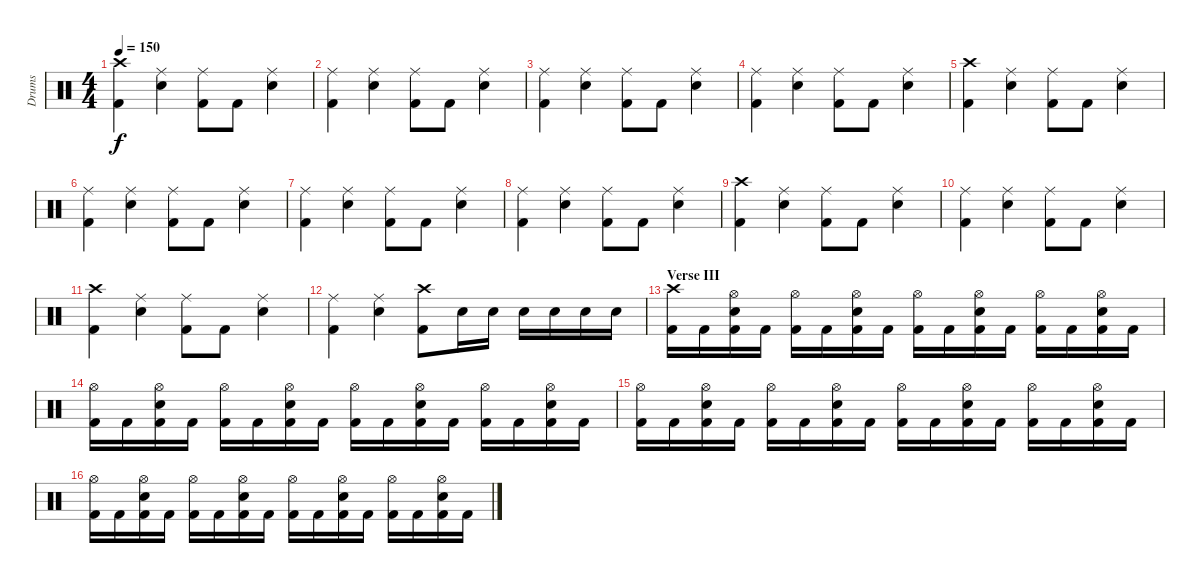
\track ("Drums" "Drums") {instrument percussion}
\staff {score}
\articulation defaults
\ts (4 4)
\tempo 150
\clef neutral
\ks c
("Crash high (hit)" "Kick (hit) 2").4{dy f} ("Ride (middle)" "Electric Snare (hit)").4 ("Ride (middle)" "Kick (hit) 2").8 "Kick (hit) 2".8 ("Ride (middle)" "Electric Snare (hit)").4 |
("Ride (middle)" "Kick (hit) 2").4 ("Ride (middle)" "Electric Snare (hit)").4 ("Ride (middle)" "Kick (hit) 2").8 "Kick (hit) 2".8 ("Ride (middle)" "Electric Snare (hit)").4 |
("Ride (middle)" "Kick (hit) 2").4 ("Ride (middle)" "Electric Snare (hit)").4 ("Ride (middle)" "Kick (hit) 2").8 "Kick (hit) 2".8 ("Ride (middle)" "Electric Snare (hit)").4 |
("Ride (middle)" "Kick (hit) 2").4 ("Ride (middle)" "Electric Snare (hit)").4 ("Ride (middle)" "Kick (hit) 2").8 "Kick (hit) 2".8 ("Ride (middle)" "Electric Snare (hit)").4 |
("Crash high (hit)" "Kick (hit) 2").4 ("Ride (middle)" "Electric Snare (hit)").4 ("Ride (middle)" "Kick (hit) 2").8 "Kick (hit) 2".8 ("Ride (middle)" "Electric Snare (hit)").4 |
("Ride (middle)" "Kick (hit) 2").4 ("Ride (middle)" "Electric Snare (hit)").4 ("Ride (middle)" "Kick (hit) 2").8 "Kick (hit) 2".8 ("Ride (middle)" "Electric Snare (hit)").4 |
("Ride (middle)" "Kick (hit) 2").4 ("Ride (middle)" "Electric Snare (hit)").4 ("Ride (middle)" "Kick (hit) 2").8 "Kick (hit) 2".8 ("Ride (middle)" "Electric Snare (hit)").4 |
("Ride (middle)" "Kick (hit) 2").4 ("Ride (middle)" "Electric Snare (hit)").4 ("Ride (middle)" "Kick (hit) 2").8 "Kick (hit) 2".8 ("Ride (middle)" "Electric Snare (hit)").4 |
("Crash high (hit)" "Kick (hit) 2").4 ("Ride (middle)" "Electric Snare (hit)").4 ("Ride (middle)" "Kick (hit) 2").8 "Kick (hit) 2".8 ("Ride (middle)" "Electric Snare (hit)").4 |
("Ride (middle)" "Kick (hit) 2").4 ("Ride (middle)" "Electric Snare (hit)").4 ("Ride (middle)" "Kick (hit) 2").8 "Kick (hit) 2".8 ("Ride (middle)" "Electric Snare (hit)").4 |
("Crash high (hit)" "Kick (hit) 2").4 ("Ride (middle)" "Electric Snare (hit)").4 ("Ride (middle)" "Kick (hit) 2").8 "Kick (hit) 2".8 ("Ride (middle)" "Electric Snare (hit)").4 |
("Ride (middle)" "Kick (hit) 2").4 ("Ride (middle)" "Electric Snare (hit)").4 ("Crash high (hit)" "Kick (hit) 2").8 "Electric Snare (hit)".16 "Electric Snare (hit)".16 "Electric Snare (hit)".16 "Electric Snare (hit)".16 "Electric Snare (hit)".16 "Electric Snare (hit)".16 |
\section ("" "Verse III")
("Crash high (hit)" "Kick (hit) 2").16 "Kick (hit) 2".16 ("Hi-Hat (open)" "Electric Snare (hit)" "Kick (hit) 2").16 "Kick (hit) 2".16 ("Hi-Hat (open)" "Kick (hit) 2").16 "Kick (hit) 2".16 ("Hi-Hat (open)" "Electric Snare (hit)" "Kick (hit) 2").16 "Kick (hit) 2".16 ("Hi-Hat (open)" "Kick (hit) 2").16 "Kick (hit) 2".16 ("Hi-Hat (open)" "Electric Snare (hit)" "Kick (hit) 2").16 "Kick (hit) 2".16 ("Hi-Hat (open)" "Kick (hit) 2").16 "Kick (hit) 2".16 ("Hi-Hat (open)" "Electric Snare (hit)" "Kick (hit) 2").16 "Kick (hit) 2".16 |
("Hi-Hat (open)" "Kick (hit) 2").16 "Kick (hit) 2".16 ("Hi-Hat (open)" "Electric Snare (hit)" "Kick (hit) 2").16 "Kick (hit) 2".16 ("Hi-Hat (open)" "Kick (hit) 2").16 "Kick (hit) 2".16 ("Hi-Hat (open)" "Electric Snare (hit)" "Kick (hit) 2").16 "Kick (hit) 2".16 ("Hi-Hat (open)" "Kick (hit) 2").16 "Kick (hit) 2".16 ("Hi-Hat (open)" "Electric Snare (hit)" "Kick (hit) 2").16 "Kick (hit) 2".16 ("Hi-Hat (open)" "Kick (hit) 2").16 "Kick (hit) 2".16 ("Hi-Hat (open)" "Electric Snare (hit)" "Kick (hit) 2").16 "Kick (hit) 2".16 |
("Hi-Hat (open)" "Kick (hit) 2").16 "Kick (hit) 2".16 ("Hi-Hat (open)" "Electric Snare (hit)" "Kick (hit) 2").16 "Kick (hit) 2".16 ("Hi-Hat (open)" "Kick (hit) 2").16 "Kick (hit) 2".16 ("Hi-Hat (open)" "Electric Snare (hit)" "Kick (hit) 2").16 "Kick (hit) 2".16 ("Hi-Hat (open)" "Kick (hit) 2").16 "Kick (hit) 2".16 ("Hi-Hat (open)" "Electric Snare (hit)" "Kick (hit) 2").16 "Kick (hit) 2".16 ("Hi-Hat (open)" "Kick (hit) 2").16 "Kick (hit) 2".16 ("Hi-Hat (open)" "Electric Snare (hit)" "Kick (hit) 2").16 "Kick (hit) 2".16 |
("Hi-Hat (open)" "Kick (hit) 2").16 "Kick (hit) 2".16 ("Hi-Hat (open)" "Electric Snare (hit)" "Kick (hit) 2").16 "Kick (hit) 2".16 ("Hi-Hat (open)" "Kick (hit) 2").16 "Kick (hit) 2".16 ("Hi-Hat (open)" "Electric Snare (hit)" "Kick (hit) 2").16 "Kick (hit) 2".16 ("Hi-Hat (open)" "Kick (hit) 2").16 "Kick (hit) 2".16 ("Hi-Hat (open)" "Electric Snare (hit)" "Kick (hit) 2").16 "Kick (hit) 2".16 ("Hi-Hat (open)" "Kick (hit) 2").16 "Kick (hit) 2".16 ("Hi-Hat (open)" "Electric Snare (hit)" "Kick (hit) 2").16 "Kick (hit) 2".16
